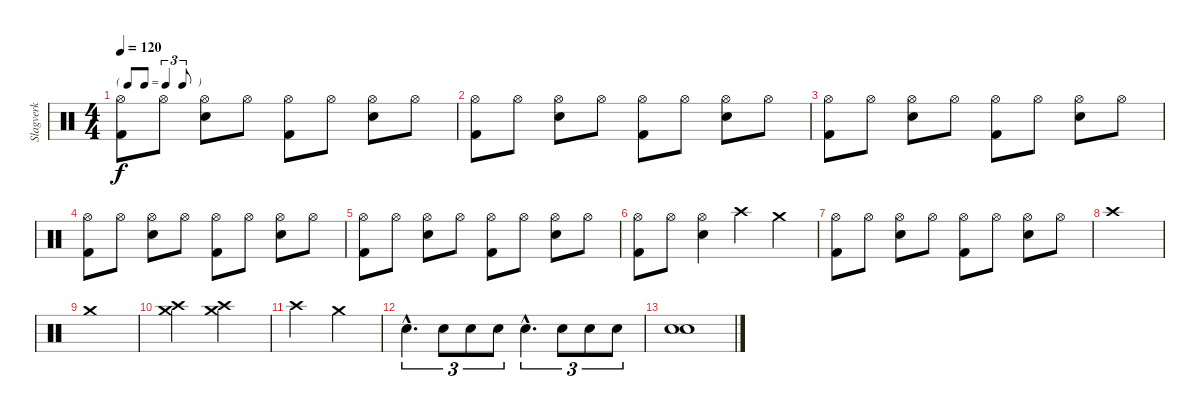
\track ("Slagverk" "Slagverk") {instrument percussion}
\staff {score}
\articulation defaults
\ts (4 4)
\tf triplet8th
\tempo 120
\clef neutral
\ks c
("Hi-Hat (open)" "Kick (hit) 2").8{dy f} "Hi-Hat (open)".8 ("Electric Snare (hit)" "Hi-Hat (open)").8 "Hi-Hat (open)".8 ("Hi-Hat (open)" "Kick (hit) 2").8 "Hi-Hat (open)".8 ("Electric Snare (hit)" "Hi-Hat (open)").8 "Hi-Hat (open)".8 |
("Hi-Hat (open)" "Kick (hit) 2").8 "Hi-Hat (open)".8 ("Electric Snare (hit)" "Hi-Hat (open)").8 "Hi-Hat (open)".8 ("Hi-Hat (open)" "Kick (hit) 2").8 "Hi-Hat (open)".8 ("Electric Snare (hit)" "Hi-Hat (open)").8 "Hi-Hat (open)".8 |
("Hi-Hat (open)" "Kick (hit) 2").8 "Hi-Hat (open)".8 ("Electric Snare (hit)" "Hi-Hat (open)").8 "Hi-Hat (open)".8 ("Hi-Hat (open)" "Kick (hit) 2").8 "Hi-Hat (open)".8 ("Electric Snare (hit)" "Hi-Hat (open)").8 "Hi-Hat (open)".8 |
("Hi-Hat (open)" "Kick (hit) 2").8 "Hi-Hat (open)".8 ("Electric Snare (hit)" "Hi-Hat (open)").8 "Hi-Hat (open)".8 ("Hi-Hat (open)" "Kick (hit) 2").8 "Hi-Hat (open)".8 ("Electric Snare (hit)" "Hi-Hat (open)").8 "Hi-Hat (open)".8 |
("Hi-Hat (open)" "Kick (hit) 2").8 "Hi-Hat (open)".8 ("Electric Snare (hit)" "Hi-Hat (open)").8 "Hi-Hat (open)".8 ("Hi-Hat (open)" "Kick (hit) 2").8 "Hi-Hat (open)".8 ("Electric Snare (hit)" "Hi-Hat (open)").8 "Hi-Hat (open)".8 |
("Hi-Hat (open)" "Kick (hit) 2").8 "Hi-Hat (open)".8 ("Electric Snare (hit)" "Hi-Hat (open)").4 "Crash high (hit)".4 "Crash medium (hit)".4 |
("Hi-Hat (open)" "Kick (hit) 2").8 "Hi-Hat (open)".8 ("Electric Snare (hit)" "Hi-Hat (open)").8 "Hi-Hat (open)".8 ("Hi-Hat (open)" "Kick (hit) 2").8 "Hi-Hat (open)".8 ("Electric Snare (hit)" "Hi-Hat (open)").8 "Hi-Hat (open)".8 |
"Crash high (hit)".1 |
"Crash medium (hit)".1 |
("Crash high (hit)" "Crash medium (hit)").2 ("Crash high (hit)" "Crash medium (hit)").2 |
"Crash high (hit)".2 "Crash medium (hit)".2 |
"Electric Snare (hit)"{hac}.4{d tu (3 2)} "Electric Snare (hit)".8{tu (3 2)} "Electric Snare (hit)".8{tu (3 2)} "Electric Snare (hit)".8{tu (3 2)} "Electric Snare (hit)"{hac}.4{d tu (3 2)} "Electric Snare (hit)".8{tu (3 2)} "Electric Snare (hit)".8{tu (3 2)} "Electric Snare (hit)".8{tu (3 2)} |
("Electric Snare (hit)" "Electric Snare (hit)").1
